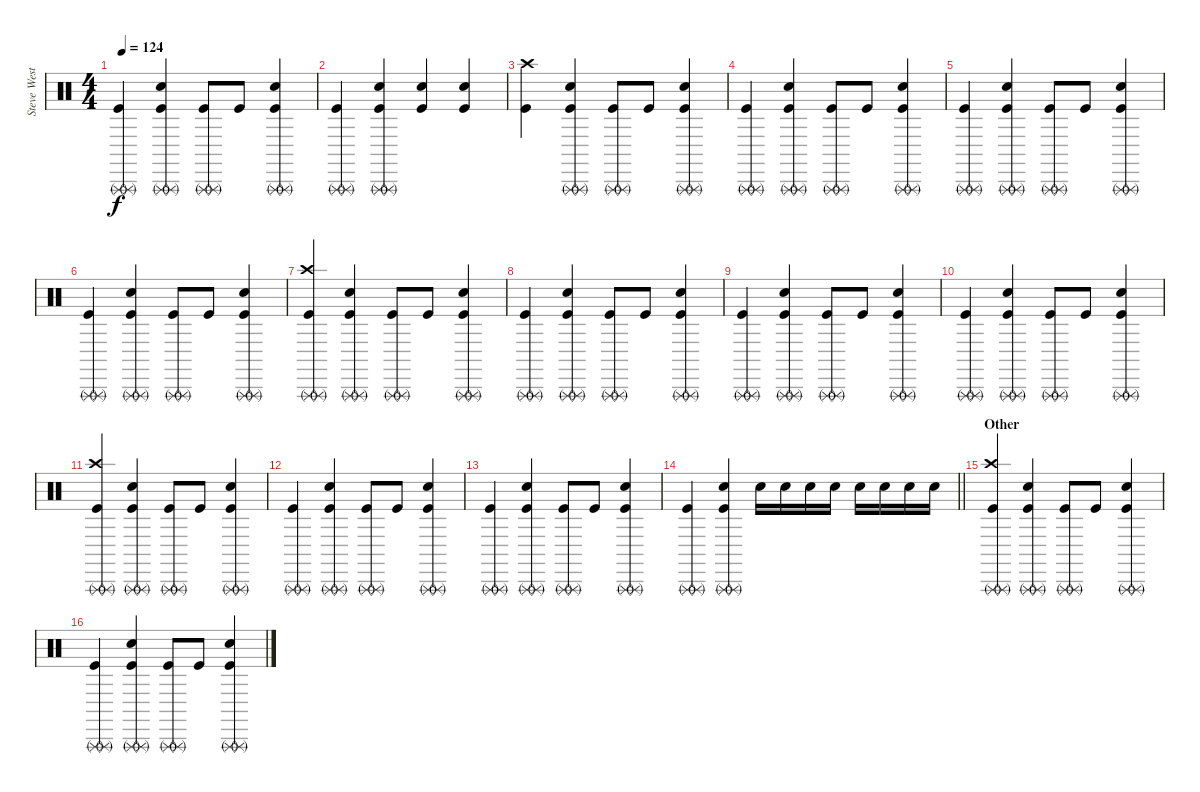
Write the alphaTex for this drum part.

\track ("Steve West" "Steve West") {instrument percussion}
\staff {score}
\articulation defaults
\ts (4 4)
\tempo 124
\clef neutral
\ks c
("Triangle (rnute)" "Triangle (rnute)" "Kick (hit)").4{dy f} ("Triangle (rnute)" "Triangle (rnute)" "Snare (hit) 2" "Kick (hit)").4 ("Triangle (rnute)" "Triangle (rnute)" "Kick (hit)").8 "Kick (hit)".8 ("Triangle (rnute)" "Triangle (rnute)" "Snare (hit) 2" "Kick (hit)").4 |
("Triangle (rnute)" "Triangle (rnute)" "Kick (hit)").4 ("Triangle (rnute)" "Triangle (rnute)" "Snare (hit) 2" "Kick (hit)").4 ("Snare (hit) 2" "Kick (hit)").4 ("Snare (hit) 2" "Kick (hit)").4 |
("Crash high (hit)" "Kick (hit)").4 ("Triangle (rnute)" "Triangle (rnute)" "Snare (hit) 2" "Kick (hit)").4 ("Triangle (rnute)" "Triangle (rnute)" "Kick (hit)").8 "Kick (hit)".8 ("Triangle (rnute)" "Triangle (rnute)" "Snare (hit) 2" "Kick (hit)").4 |
("Triangle (rnute)" "Triangle (rnute)" "Kick (hit)").4 ("Triangle (rnute)" "Triangle (rnute)" "Snare (hit) 2" "Kick (hit)").4 ("Triangle (rnute)" "Triangle (rnute)" "Kick (hit)").8 "Kick (hit)".8 ("Triangle (rnute)" "Triangle (rnute)" "Snare (hit) 2" "Kick (hit)").4 |
("Triangle (rnute)" "Triangle (rnute)" "Kick (hit)").4 ("Triangle (rnute)" "Triangle (rnute)" "Snare (hit) 2" "Kick (hit)").4 ("Triangle (rnute)" "Triangle (rnute)" "Kick (hit)").8 "Kick (hit)".8 ("Triangle (rnute)" "Triangle (rnute)" "Snare (hit) 2" "Kick (hit)").4 |
("Triangle (rnute)" "Triangle (rnute)" "Kick (hit)").4 ("Triangle (rnute)" "Triangle (rnute)" "Snare (hit) 2" "Kick (hit)").4 ("Triangle (rnute)" "Triangle (rnute)" "Kick (hit)").8 "Kick (hit)".8 ("Triangle (rnute)" "Triangle (rnute)" "Snare (hit) 2" "Kick (hit)").4 |
("Crash high (hit)" "Triangle (rnute)" "Triangle (rnute)" "Kick (hit)").4 ("Triangle (rnute)" "Triangle (rnute)" "Snare (hit) 2" "Kick (hit)").4 ("Triangle (rnute)" "Triangle (rnute)" "Kick (hit)").8 "Kick (hit)".8 ("Triangle (rnute)" "Triangle (rnute)" "Snare (hit) 2" "Kick (hit)").4 |
("Triangle (rnute)" "Triangle (rnute)" "Kick (hit)").4 ("Triangle (rnute)" "Triangle (rnute)" "Snare (hit) 2" "Kick (hit)").4 ("Triangle (rnute)" "Triangle (rnute)" "Kick (hit)").8 "Kick (hit)".8 ("Triangle (rnute)" "Triangle (rnute)" "Snare (hit) 2" "Kick (hit)").4 |
("Triangle (rnute)" "Triangle (rnute)" "Kick (hit)").4 ("Triangle (rnute)" "Triangle (rnute)" "Snare (hit) 2" "Kick (hit)").4 ("Triangle (rnute)" "Triangle (rnute)" "Kick (hit)").8 "Kick (hit)".8 ("Triangle (rnute)" "Triangle (rnute)" "Snare (hit) 2" "Kick (hit)").4 |
("Triangle (rnute)" "Triangle (rnute)" "Kick (hit)").4 ("Triangle (rnute)" "Triangle (rnute)" "Snare (hit) 2" "Kick (hit)").4 ("Triangle (rnute)" "Triangle (rnute)" "Kick (hit)").8 "Kick (hit)".8 ("Triangle (rnute)" "Triangle (rnute)" "Snare (hit) 2" "Kick (hit)").4 |
("Crash high (hit)" "Triangle (rnute)" "Triangle (rnute)" "Kick (hit)").4 ("Triangle (rnute)" "Triangle (rnute)" "Snare (hit) 2" "Kick (hit)").4 ("Triangle (rnute)" "Triangle (rnute)" "Kick (hit)").8 "Kick (hit)".8 ("Triangle (rnute)" "Triangle (rnute)" "Snare (hit) 2" "Kick (hit)").4 |
("Triangle (rnute)" "Triangle (rnute)" "Kick (hit)").4 ("Triangle (rnute)" "Triangle (rnute)" "Snare (hit) 2" "Kick (hit)").4 ("Triangle (rnute)" "Triangle (rnute)" "Kick (hit)").8 "Kick (hit)".8 ("Triangle (rnute)" "Triangle (rnute)" "Snare (hit) 2" "Kick (hit)").4 |
("Triangle (rnute)" "Triangle (rnute)" "Kick (hit)").4 ("Triangle (rnute)" "Triangle (rnute)" "Snare (hit) 2" "Kick (hit)").4 ("Triangle (rnute)" "Triangle (rnute)" "Kick (hit)").8 "Kick (hit)".8 ("Triangle (rnute)" "Triangle (rnute)" "Snare (hit) 2" "Kick (hit)").4 |
\barLineRight lightlight
("Triangle (rnute)" "Triangle (rnute)" "Kick (hit)").4 ("Triangle (rnute)" "Triangle (rnute)" "Snare (hit) 2" "Kick (hit)").4 "Snare (hit) 2".16 "Snare (hit) 2".16 "Snare (hit) 2".16 "Snare (hit) 2".16 "Snare (hit) 2".16 "Snare (hit) 2".16 "Snare (hit) 2".16 "Snare (hit) 2".16 |
\section ("" "Other")
("Crash high (hit)" "Triangle (rnute)" "Triangle (rnute)" "Kick (hit)").4{volume 6} ("Triangle (rnute)" "Triangle (rnute)" "Snare (hit) 2" "Kick (hit)").4 ("Triangle (rnute)" "Triangle (rnute)" "Kick (hit)").8 "Kick (hit)".8 ("Triangle (rnute)" "Triangle (rnute)" "Snare (hit) 2" "Kick (hit)").4 |
("Triangle (rnute)" "Triangle (rnute)" "Kick (hit)").4 ("Triangle (rnute)" "Triangle (rnute)" "Snare (hit) 2" "Kick (hit)").4 ("Triangle (rnute)" "Triangle (rnute)" "Kick (hit)").8 "Kick (hit)".8 ("Triangle (rnute)" "Triangle (rnute)" "Snare (hit) 2" "Kick (hit)").4
